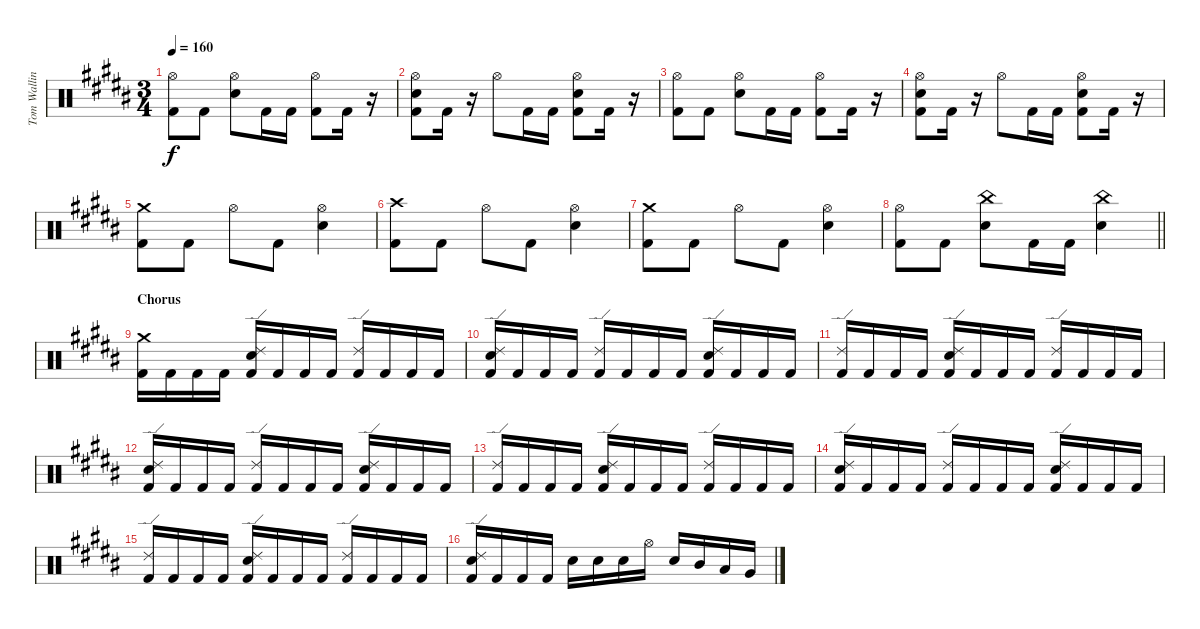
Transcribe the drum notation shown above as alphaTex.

\track ("Tom Walling (drums)" "Tom Wallin") {instrument percussion}
\staff {score}
\articulation defaults
\ts (3 4)
\tempo 160
\clef neutral
\ks g#minor
("Hi-Hat (open)" "Kick (hit) 2").8{dy f} "Kick (hit) 2".8 ("Electric Snare (hit)" "Hi-Hat (open)").8 "Kick (hit) 2".16 "Kick (hit) 2".16 ("Kick (hit) 2" "Hi-Hat (open)").8 "Kick (hit) 2".16 r.16 |
("Kick (hit) 2" "Electric Snare (hit)" "Hi-Hat (open)").8 "Kick (hit) 2".16 r.16 "Hi-Hat (open)".8 "Kick (hit) 2".16 "Kick (hit) 2".16 ("Kick (hit) 2" "Electric Snare (hit)" "Hi-Hat (open)").8 "Kick (hit) 2".16 r.16 |
("Hi-Hat (open)" "Kick (hit) 2").8 "Kick (hit) 2".8 ("Electric Snare (hit)" "Hi-Hat (open)").8 "Kick (hit) 2".16 "Kick (hit) 2".16 ("Kick (hit) 2" "Hi-Hat (open)").8 "Kick (hit) 2".16 r.16 |
("Kick (hit) 2" "Electric Snare (hit)" "Hi-Hat (open)").8 "Kick (hit) 2".16 r.16 "Hi-Hat (open)".8 "Kick (hit) 2".16 "Kick (hit) 2".16 ("Kick (hit) 2" "Electric Snare (hit)" "Hi-Hat (open)").8 "Kick (hit) 2".16 r.16 |
("Crash medium (hit)" "Kick (hit) 2").8 "Kick (hit) 2".8 "Hi-Hat (open)".8 "Kick (hit) 2".8 ("Hi-Hat (open)" "Electric Snare (hit)").4 |
("Crash high (hit)" "Kick (hit) 2").8 "Kick (hit) 2".8 "Hi-Hat (open)".8 "Kick (hit) 2".8 ("Hi-Hat (open)" "Electric Snare (hit)").4 |
("Crash medium (hit)" "Kick (hit) 2").8 "Kick (hit) 2".8 "Hi-Hat (open)".8 "Kick (hit) 2".8 ("Hi-Hat (open)" "Electric Snare (hit)").4 |
\barLineRight lightlight
("Hi-Hat (open)" "Kick (hit) 2").8 "Kick (hit) 2".8 ("China (hit)" "Electric Snare (hit)").8 "Kick (hit) 2".16 "Kick (hit) 2".16 ("China (hit)" "Electric Snare (hit)").4 |
\section ("" "Chorus ")
("Kick (hit) 2" "Crash medium (hit)").16 "Kick (hit) 2".16 "Kick (hit) 2".16 "Kick (hit) 2".16 ("Electric Snare (hit)" "Kick (hit) 2" "Ride (edge) 2").16 "Kick (hit) 2".16 "Kick (hit) 2".16 "Kick (hit) 2".16 ("Kick (hit) 2" "Ride (edge) 2").16 "Kick (hit) 2".16 "Kick (hit) 2".16 "Kick (hit) 2".16 |
("Electric Snare (hit)" "Kick (hit) 2" "Ride (edge) 2").16 "Kick (hit) 2".16 "Kick (hit) 2".16 "Kick (hit) 2".16 ("Kick (hit) 2" "Ride (edge) 2").16 "Kick (hit) 2".16 "Kick (hit) 2".16 "Kick (hit) 2".16 ("Electric Snare (hit)" "Kick (hit) 2" "Ride (edge) 2").16 "Kick (hit) 2".16 "Kick (hit) 2".16 "Kick (hit) 2".16 |
("Ride (edge) 2" "Kick (hit) 2").16 "Kick (hit) 2".16 "Kick (hit) 2".16 "Kick (hit) 2".16 ("Electric Snare (hit)" "Kick (hit) 2" "Ride (edge) 2").16 "Kick (hit) 2".16 "Kick (hit) 2".16 "Kick (hit) 2".16 ("Kick (hit) 2" "Ride (edge) 2").16 "Kick (hit) 2".16 "Kick (hit) 2".16 "Kick (hit) 2".16 |
("Electric Snare (hit)" "Kick (hit) 2" "Ride (edge) 2").16 "Kick (hit) 2".16 "Kick (hit) 2".16 "Kick (hit) 2".16 ("Kick (hit) 2" "Ride (edge) 2").16 "Kick (hit) 2".16 "Kick (hit) 2".16 "Kick (hit) 2".16 ("Electric Snare (hit)" "Kick (hit) 2" "Ride (edge) 2").16 "Kick (hit) 2".16 "Kick (hit) 2".16 "Kick (hit) 2".16 |
("Ride (edge) 2" "Kick (hit) 2").16 "Kick (hit) 2".16 "Kick (hit) 2".16 "Kick (hit) 2".16 ("Electric Snare (hit)" "Kick (hit) 2" "Ride (edge) 2").16 "Kick (hit) 2".16 "Kick (hit) 2".16 "Kick (hit) 2".16 ("Kick (hit) 2" "Ride (edge) 2").16 "Kick (hit) 2".16 "Kick (hit) 2".16 "Kick (hit) 2".16 |
("Electric Snare (hit)" "Kick (hit) 2" "Ride (edge) 2").16 "Kick (hit) 2".16 "Kick (hit) 2".16 "Kick (hit) 2".16 ("Kick (hit) 2" "Ride (edge) 2").16 "Kick (hit) 2".16 "Kick (hit) 2".16 "Kick (hit) 2".16 ("Electric Snare (hit)" "Kick (hit) 2" "Ride (edge) 2").16 "Kick (hit) 2".16 "Kick (hit) 2".16 "Kick (hit) 2".16 |
("Ride (edge) 2" "Kick (hit) 2").16 "Kick (hit) 2".16 "Kick (hit) 2".16 "Kick (hit) 2".16 ("Electric Snare (hit)" "Kick (hit) 2" "Ride (edge) 2").16 "Kick (hit) 2".16 "Kick (hit) 2".16 "Kick (hit) 2".16 ("Kick (hit) 2" "Ride (edge) 2").16 "Kick (hit) 2".16 "Kick (hit) 2".16 "Kick (hit) 2".16 |
("Electric Snare (hit)" "Kick (hit) 2" "Ride (edge) 2").16 "Kick (hit) 2".16 "Kick (hit) 2".16 "Kick (hit) 2".16 "Electric Snare (hit)".16 "Electric Snare (hit)".16 "Electric Snare (hit)".16 "Hi-Hat (open)".16 "Electric Snare (hit)".16 "Mid Tom (hit)".16 "Low Tom (hit)".16 "Very Low Tom (hit)".16
